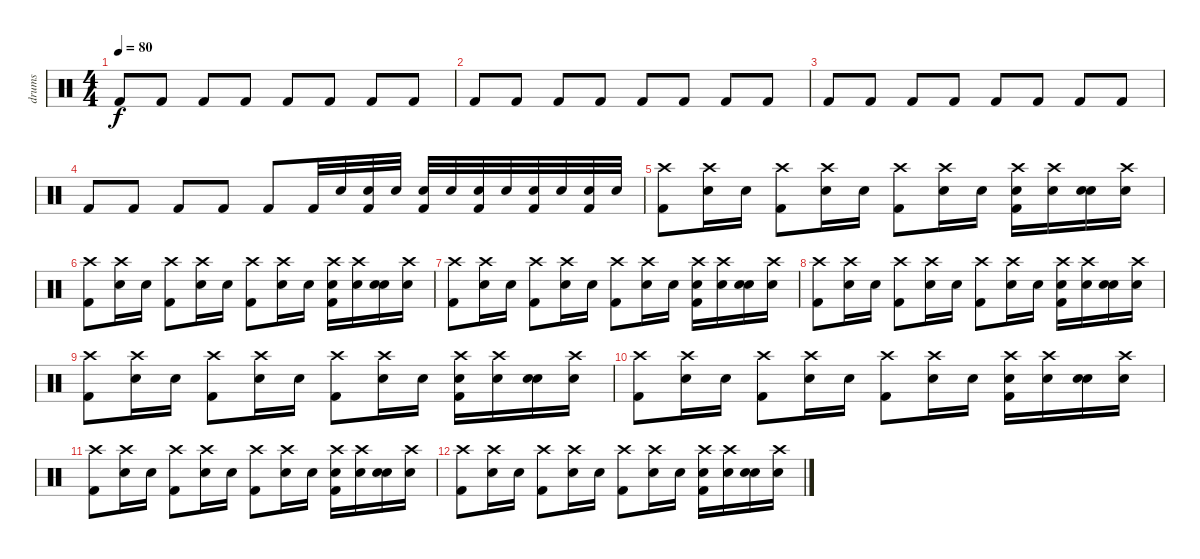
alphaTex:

\track ("drums" "drums") {instrument percussion}
\staff {score}
\articulation defaults
\ts (4 4)
\tempo 80
\clef neutral
\ks c "Kick (hit) 2".8{dy f} "Kick (hit) 2".8 "Kick (hit) 2".8 "Kick (hit) 2".8 "Kick (hit) 2".8 "Kick (hit) 2".8 "Kick (hit) 2".8 "Kick (hit) 2".8
|
"Kick (hit) 2".8 "Kick (hit) 2".8 "Kick (hit) 2".8 "Kick (hit) 2".8 "Kick (hit) 2".8 "Kick (hit) 2".8 "Kick (hit) 2".8 "Kick (hit) 2".8 |
"Kick (hit) 2".8 "Kick (hit) 2".8 "Kick (hit) 2".8 "Kick (hit) 2".8 "Kick (hit) 2".8 "Kick (hit) 2".8 "Kick (hit) 2".8 "Kick (hit) 2".8 |
"Kick (hit) 2".8 "Kick (hit) 2".8 "Kick (hit) 2".8 "Kick (hit) 2".8 "Kick (hit) 2".8 "Kick (hit) 2".32 "Electric Snare (hit)".32 ("Kick (hit) 2" "Electric Snare (hit)").32 "Electric Snare (hit)".32 ("Kick (hit) 2" "Electric Snare (hit)").32 "Electric Snare (hit)".32 ("Kick (hit) 2" "Electric Snare (hit)").32 "Electric Snare (hit)".32 ("Kick (hit) 2" "Electric Snare (hit)").32 "Electric Snare (hit)".32 ("Kick (hit) 2" "Electric Snare (hit)").32 "Electric Snare (hit)".32 |
("Kick (hit) 2" "Crash high (hit)").8 ("Electric Snare (hit)" "Crash high (hit)").16 "Electric Snare (hit)".16 ("Kick (hit) 2" "Crash high (hit)").8 ("Electric Snare (hit)" "Crash high (hit)").16 "Electric Snare (hit)".16 ("Kick (hit) 2" "Crash high (hit)").8 ("Electric Snare (hit)" "Crash high (hit)").16 "Electric Snare (hit)".16 ("Kick (hit) 2" "Electric Snare (hit)" "Crash high (hit)").16 ("Electric Snare (hit)" "Crash high (hit)").16 ("Electric Snare (hit)" "Electric Snare (hit)").16 ("Electric Snare (hit)" "Crash high (hit)").16 |
("Kick (hit) 2" "Crash high (hit)").8 ("Electric Snare (hit)" "Crash high (hit)").16 "Electric Snare (hit)".16 ("Kick (hit) 2" "Crash high (hit)").8 ("Electric Snare (hit)" "Crash high (hit)").16 "Electric Snare (hit)".16 ("Kick (hit) 2" "Crash high (hit)").8 ("Electric Snare (hit)" "Crash high (hit)").16 "Electric Snare (hit)".16 ("Kick (hit) 2" "Electric Snare (hit)" "Crash high (hit)").16 ("Electric Snare (hit)" "Crash high (hit)").16 ("Electric Snare (hit)" "Electric Snare (hit)").16 ("Electric Snare (hit)" "Crash high (hit)").16 |
("Kick (hit) 2" "Crash high (hit)").8 ("Electric Snare (hit)" "Crash high (hit)").16 "Electric Snare (hit)".16 ("Kick (hit) 2" "Crash high (hit)").8 ("Electric Snare (hit)" "Crash high (hit)").16 "Electric Snare (hit)".16 ("Kick (hit) 2" "Crash high (hit)").8 ("Electric Snare (hit)" "Crash high (hit)").16 "Electric Snare (hit)".16 ("Kick (hit) 2" "Electric Snare (hit)" "Crash high (hit)").16 ("Electric Snare (hit)" "Crash high (hit)").16 ("Electric Snare (hit)" "Electric Snare (hit)").16 ("Electric Snare (hit)" "Crash high (hit)").16 |
("Kick (hit) 2" "Crash high (hit)").8 ("Electric Snare (hit)" "Crash high (hit)").16 "Electric Snare (hit)".16 ("Kick (hit) 2" "Crash high (hit)").8 ("Electric Snare (hit)" "Crash high (hit)").16 "Electric Snare (hit)".16 ("Kick (hit) 2" "Crash high (hit)").8 ("Electric Snare (hit)" "Crash high (hit)").16 "Electric Snare (hit)".16 ("Kick (hit) 2" "Electric Snare (hit)" "Crash high (hit)").16 ("Electric Snare (hit)" "Crash high (hit)").16 ("Electric Snare (hit)" "Electric Snare (hit)").16 ("Electric Snare (hit)" "Crash high (hit)").16 |
("Kick (hit) 2" "Crash high (hit)").8 ("Electric Snare (hit)" "Crash high (hit)").16 "Electric Snare (hit)".16 ("Kick (hit) 2" "Crash high (hit)").8 ("Electric Snare (hit)" "Crash high (hit)").16 "Electric Snare (hit)".16 ("Kick (hit) 2" "Crash high (hit)").8 ("Electric Snare (hit)" "Crash high (hit)").16 "Electric Snare (hit)".16 ("Kick (hit) 2" "Electric Snare (hit)" "Crash high (hit)").16 ("Electric Snare (hit)" "Crash high (hit)").16 ("Electric Snare (hit)" "Electric Snare (hit)").16 ("Electric Snare (hit)" "Crash high (hit)").16 |
("Kick (hit) 2" "Crash high (hit)").8 ("Electric Snare (hit)" "Crash high (hit)").16 "Electric Snare (hit)".16 ("Kick (hit) 2" "Crash high (hit)").8 ("Electric Snare (hit)" "Crash high (hit)").16 "Electric Snare (hit)".16 ("Kick (hit) 2" "Crash high (hit)").8 ("Electric Snare (hit)" "Crash high (hit)").16 "Electric Snare (hit)".16 ("Kick (hit) 2" "Electric Snare (hit)" "Crash high (hit)").16 ("Electric Snare (hit)" "Crash high (hit)").16 ("Electric Snare (hit)" "Electric Snare (hit)").16 ("Electric Snare (hit)" "Crash high (hit)").16 |
("Kick (hit) 2" "Crash high (hit)").8 ("Electric Snare (hit)" "Crash high (hit)").16 "Electric Snare (hit)".16 ("Kick (hit) 2" "Crash high (hit)").8 ("Electric Snare (hit)" "Crash high (hit)").16 "Electric Snare (hit)".16 ("Kick (hit) 2" "Crash high (hit)").8 ("Electric Snare (hit)" "Crash high (hit)").16 "Electric Snare (hit)".16 ("Kick (hit) 2" "Electric Snare (hit)" "Crash high (hit)").16 ("Electric Snare (hit)" "Crash high (hit)").16 ("Electric Snare (hit)" "Electric Snare (hit)").16 ("Electric Snare (hit)" "Crash high (hit)").16 |
("Kick (hit) 2" "Crash high (hit)").8 ("Electric Snare (hit)" "Crash high (hit)").16 "Electric Snare (hit)".16 ("Kick (hit) 2" "Crash high (hit)").8 ("Electric Snare (hit)" "Crash high (hit)").16 "Electric Snare (hit)".16 ("Kick (hit) 2" "Crash high (hit)").8 ("Electric Snare (hit)" "Crash high (hit)").16 "Electric Snare (hit)".16 ("Kick (hit) 2" "Electric Snare (hit)" "Crash high (hit)").16 ("Electric Snare (hit)" "Crash high (hit)").16 ("Electric Snare (hit)" "Electric Snare (hit)").16 ("Electric Snare (hit)" "Crash high (hit)").16
